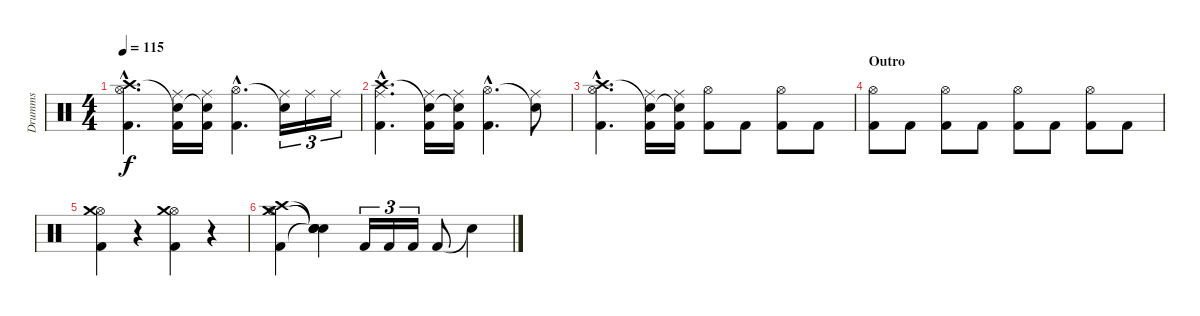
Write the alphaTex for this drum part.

\track ("Drumms" "Drumms") {instrument percussion}
\staff {score}
\articulation defaults
\ts (4 4)
\tempo 115
\clef neutral
\ks c
("Crash high (hit)"{hac} "Hi-Hat (open)"{hac} "Kick (hit) 2"{hac}).4{d dy f} ("Snare (hit)"{t} "Kick (hit) 2" "Ride (middle)").16 ("Snare (hit)"{t} "Kick (hit) 2" "Ride (middle)").16 ("Hi-Hat (open)"{hac} "Kick (hit) 2"{hac}).4{d} ("Snare (hit)"{t} "Ride (middle)").16{tu (3 2)} "Ride (middle)".16{tu (3 2)} "Ride (middle)".16{tu (3 2)} |
("Crash high (hit)"{hac} "Ride (middle)"{hac} "Kick (hit) 2"{hac}).4{d} ("Snare (hit)"{t} "Kick (hit) 2" "Ride (middle)").16 ("Snare (hit)"{t} "Kick (hit) 2" "Ride (middle)").16 ("Hi-Hat (open)"{hac} "Kick (hit) 2"{hac}).4{d} ("Snare (hit)"{t} "Ride (middle)").8 |
("Crash high (hit)"{hac} "Hi-Hat (open)"{hac} "Kick (hit) 2"{hac}).4{d} ("Snare (hit)"{t} "Kick (hit) 2" "Ride (middle)").16 ("Snare (hit)"{t} "Kick (hit) 2" "Ride (middle)").16 ("Hi-Hat (open)" "Kick (hit) 2").8 "Kick (hit) 2".8 ("Hi-Hat (open)" "Kick (hit) 2").8 "Kick (hit) 2".8 |
\section ("" "Outro")
("Hi-Hat (open)" "Kick (hit) 2").8 "Kick (hit) 2".8 ("Hi-Hat (open)" "Kick (hit) 2").8 "Kick (hit) 2".8 ("Hi-Hat (open)" "Kick (hit) 2").8 "Kick (hit) 2".8 ("Hi-Hat (open)" "Kick (hit) 2").8 "Kick (hit) 2".8 |
("Hi-Hat (open)" "Kick (hit) 2" "Crash medium (hit)").4 r.4 ("Hi-Hat (open)" "Crash medium (hit)" "Kick (hit) 2").4 r.4 |
("Hi-Hat (open)" "Crash medium (hit)" "Kick (hit) 2" "Crash high (hit)").4 ("Snare (hit)"{t} "Snare (hit)"{t} "Snare (hit)"{t} "Snare (hit)"{t}).4 "Kick (hit) 2".16{tu (3 2)} "Kick (hit) 2".16{tu (3 2)} "Kick (hit) 2".16{tu (3 2)} "Kick (hit) 2".8 "Snare (hit)"{t}.4
